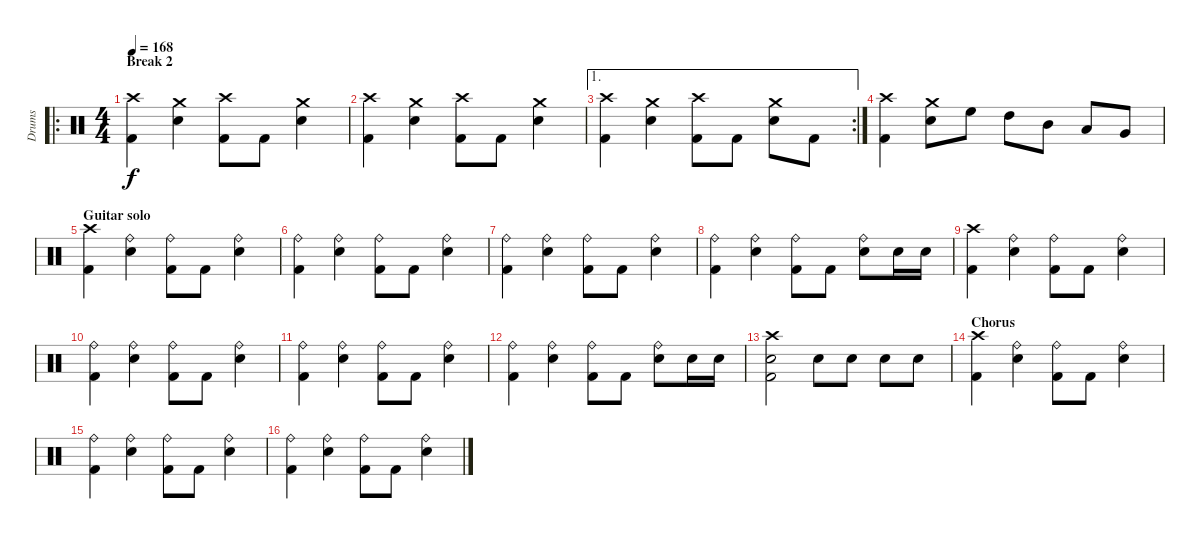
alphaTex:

\track ("Drums" "Drums") {instrument percussion}
\staff {score}
\articulation defaults
\ro
\ts (4 4)
\section ("" "Break 2")
\tempo 168
\clef neutral
\ks c
("Crash high (hit)" "Kick (hit) 2").4{dy f} ("Crash medium (hit)" "Electric Snare (hit)").4 ("Crash high (hit)" "Kick (hit) 2").8 "Kick (hit) 2".8 ("Crash medium (hit)" "Electric Snare (hit)").4 |
("Crash high (hit)" "Kick (hit) 2").4 ("Crash medium (hit)" "Electric Snare (hit)").4 ("Crash high (hit)" "Kick (hit) 2").8 "Kick (hit) 2".8 ("Crash medium (hit)" "Electric Snare (hit)").4 |
\ae 1
\rc 2
("Crash high (hit)" "Kick (hit) 2").4 ("Crash medium (hit)" "Electric Snare (hit)").4 ("Crash high (hit)" "Kick (hit) 2").8 "Kick (hit) 2".8 ("Crash medium (hit)" "Electric Snare (hit)").8 "Kick (hit) 2".8 |
("Crash high (hit)" "Kick (hit) 2").4 ("Crash medium (hit)" "Electric Snare (hit)").8 "High Floor Tom (hit)".8 "High Tom (hit)".8 "Mid Tom (hit)".8 "Low Tom (hit)".8 "Very Low Tom (hit)".8 |
\section ("" "Guitar solo")
("Crash high (hit)" "Kick (hit) 2").4 ("Ride (bell)" "Electric Snare (hit)").4 ("Ride (bell)" "Kick (hit) 2").8 "Kick (hit) 2".8 ("Ride (bell)" "Electric Snare (hit)").4 |
("Ride (bell)" "Kick (hit) 2").4 ("Ride (bell)" "Electric Snare (hit)").4 ("Ride (bell)" "Kick (hit) 2").8 "Kick (hit) 2".8 ("Ride (bell)" "Electric Snare (hit)").4 |
("Ride (bell)" "Kick (hit) 2").4 ("Ride (bell)" "Electric Snare (hit)").4 ("Ride (bell)" "Kick (hit) 2").8 "Kick (hit) 2".8 ("Ride (bell)" "Electric Snare (hit)").4 |
("Ride (bell)" "Kick (hit) 2").4 ("Ride (bell)" "Electric Snare (hit)").4 ("Ride (bell)" "Kick (hit) 2").8 "Kick (hit) 2".8 ("Ride (bell)" "Electric Snare (hit)").8 "Electric Snare (hit)".16 "Electric Snare (hit)".16 |
("Crash high (hit)" "Kick (hit) 2").4 ("Ride (bell)" "Electric Snare (hit)").4 ("Ride (bell)" "Kick (hit) 2").8 "Kick (hit) 2".8 ("Ride (bell)" "Electric Snare (hit)").4 |
("Ride (bell)" "Kick (hit) 2").4 ("Ride (bell)" "Electric Snare (hit)").4 ("Ride (bell)" "Kick (hit) 2").8 "Kick (hit) 2".8 ("Ride (bell)" "Electric Snare (hit)").4 |
("Ride (bell)" "Kick (hit) 2").4 ("Ride (bell)" "Electric Snare (hit)").4 ("Ride (bell)" "Kick (hit) 2").8 "Kick (hit) 2".8 ("Ride (bell)" "Electric Snare (hit)").4 |
("Ride (bell)" "Kick (hit) 2").4 ("Ride (bell)" "Electric Snare (hit)").4 ("Ride (bell)" "Kick (hit) 2").8 "Kick (hit) 2".8 ("Ride (bell)" "Electric Snare (hit)").8 "Electric Snare (hit)".16 "Electric Snare (hit)".16 |
("Crash high (hit)" "Electric Snare (hit)" "Kick (hit) 2").2 "Electric Snare (hit)".8 "Electric Snare (hit)".8 "Electric Snare (hit)".8 "Electric Snare (hit)".8 |
\section ("" "Chorus")
("Crash high (hit)" "Kick (hit) 2").4 ("Ride (bell)" "Electric Snare (hit)").4 ("Ride (bell)" "Kick (hit) 2").8 "Kick (hit) 2".8 ("Ride (bell)" "Electric Snare (hit)").4 |
("Ride (bell)" "Kick (hit) 2").4 ("Ride (bell)" "Electric Snare (hit)").4 ("Ride (bell)" "Kick (hit) 2").8 "Kick (hit) 2".8 ("Ride (bell)" "Electric Snare (hit)").4 |
("Ride (bell)" "Kick (hit) 2").4 ("Ride (bell)" "Electric Snare (hit)").4 ("Ride (bell)" "Kick (hit) 2").8 "Kick (hit) 2".8 ("Ride (bell)" "Electric Snare (hit)").4
